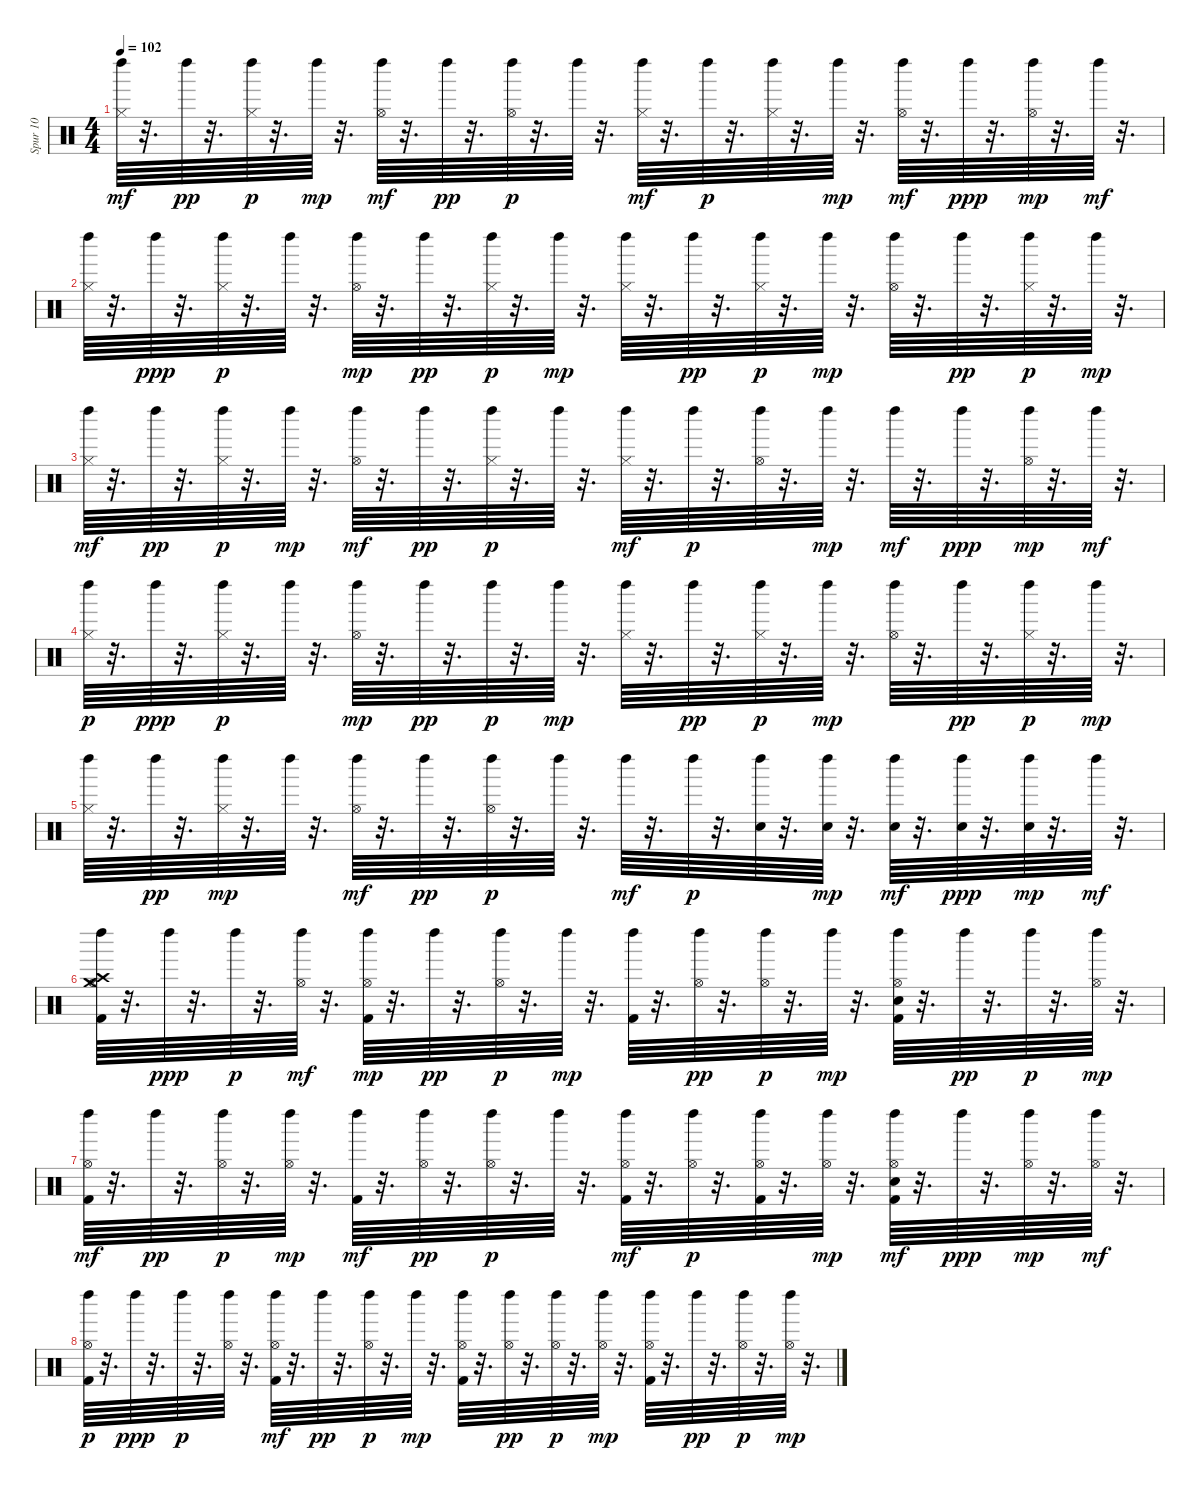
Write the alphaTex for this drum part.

\track ("Spur 10" "Spur 10") {instrument percussion}
\staff {score}
\articulation defaults
\ts (4 4)
\tempo 102
\clef neutral
\ks c
("Hi-Hat (closed)" "Left Maraca (hit)").64{dy mf} r.32{d} "Left Maraca (hit)".64{dy pp} r.32{d} ("Hi-Hat (closed)" "Left Maraca (hit)").64{dy p} r.32{d} "Left Maraca (hit)".64{dy mp} r.32{d} ("Hi-Hat (open)" "Left Maraca (hit)").64{dy mf} r.32{d} "Left Maraca (hit)".64{dy pp} r.32{d} ("Hi-Hat (open)" "Left Maraca (hit)").64{dy p} r.32{d} "Left Maraca (hit)".64 r.32{d} ("Hi-Hat (closed)" "Left Maraca (hit)").64{dy mf} r.32{d} "Left Maraca (hit)".64{dy p} r.32{d} ("Hi-Hat (closed)" "Left Maraca (hit)").64 r.32{d} "Left Maraca (hit)".64{dy mp} r.32{d} ("Hi-Hat (open)" "Left Maraca (hit)").64{dy mf} r.32{d} "Left Maraca (hit)".64{dy ppp} r.32{d} ("Hi-Hat (open)" "Left Maraca (hit)").64{dy mp} r.32{d} "Left Maraca (hit)".64{dy mf} r.32{d} |
("Left Maraca (hit)" "Hi-Hat (closed)").64 r.32{d} "Left Maraca (hit)".64{dy ppp} r.32{d} ("Hi-Hat (closed)" "Left Maraca (hit)").64{dy p} r.32{d} "Left Maraca (hit)".64 r.32{d} ("Hi-Hat (open)" "Left Maraca (hit)").64{dy mp} r.32{d} "Left Maraca (hit)".64{dy pp} r.32{d} ("Hi-Hat (closed)" "Left Maraca (hit)").64{dy p} r.32{d} "Left Maraca (hit)".64{dy mp} r.32{d} ("Hi-Hat (closed)" "Left Maraca (hit)").64 r.32{d} "Left Maraca (hit)".64{dy pp} r.32{d} ("Hi-Hat (closed)" "Left Maraca (hit)").64{dy p} r.32{d} "Left Maraca (hit)".64{dy mp} r.32{d} ("Hi-Hat (open)" "Left Maraca (hit)").64 r.32{d} "Left Maraca (hit)".64{dy pp} r.32{d} ("Hi-Hat (closed)" "Left Maraca (hit)").64{dy p} r.32{d} "Left Maraca (hit)".64{dy mp} r.32{d} |
("Hi-Hat (closed)" "Left Maraca (hit)").64{dy mf} r.32{d} "Left Maraca (hit)".64{dy pp} r.32{d} ("Hi-Hat (closed)" "Left Maraca (hit)").64{dy p} r.32{d} "Left Maraca (hit)".64{dy mp} r.32{d} ("Hi-Hat (open)" "Left Maraca (hit)").64{dy mf} r.32{d} "Left Maraca (hit)".64{dy pp} r.32{d} ("Hi-Hat (closed)" "Left Maraca (hit)").64{dy p} r.32{d} "Left Maraca (hit)".64 r.32{d} ("Hi-Hat (closed)" "Left Maraca (hit)").64{dy mf} r.32{d} "Left Maraca (hit)".64{dy p} r.32{d} ("Hi-Hat (open)" "Left Maraca (hit)").64 r.32{d} "Left Maraca (hit)".64{dy mp} r.32{d} "Left Maraca (hit)".64{dy mf} r.32{d} "Left Maraca (hit)".64{dy ppp} r.32{d} ("Hi-Hat (open)" "Left Maraca (hit)").64{dy mp} r.32{d} "Left Maraca (hit)".64{dy mf} r.32{d} |
("Left Maraca (hit)" "Hi-Hat (closed)").64{dy p} r.32{d} "Left Maraca (hit)".64{dy ppp} r.32{d} ("Hi-Hat (closed)" "Left Maraca (hit)").64{dy p} r.32{d} "Left Maraca (hit)".64 r.32{d} ("Hi-Hat (open)" "Left Maraca (hit)").64{dy mp} r.32{d} "Left Maraca (hit)".64{dy pp} r.32{d} "Left Maraca (hit)".64{dy p} r.32{d} "Left Maraca (hit)".64{dy mp} r.32{d} ("Hi-Hat (closed)" "Left Maraca (hit)").64 r.32{d} "Left Maraca (hit)".64{dy pp} r.32{d} ("Hi-Hat (closed)" "Left Maraca (hit)").64{dy p} r.32{d} "Left Maraca (hit)".64{dy mp} r.32{d} ("Hi-Hat (open)" "Left Maraca (hit)").64 r.32{d} "Left Maraca (hit)".64{dy pp} r.32{d} ("Hi-Hat (closed)" "Left Maraca (hit)").64{dy p} r.32{d} "Left Maraca (hit)".64{dy mp} r.32{d} |
("Left Maraca (hit)" "Hi-Hat (closed)").64 r.32{d} "Left Maraca (hit)".64{dy pp} r.32{d} ("Left Maraca (hit)" "Hi-Hat (closed)").64{dy mp} r.32{d} "Left Maraca (hit)".64 r.32{d} ("Hi-Hat (open)" "Left Maraca (hit)").64{dy mf} r.32{d} "Left Maraca (hit)".64{dy pp} r.32{d} ("Hi-Hat (open)" "Left Maraca (hit)").64{dy p} r.32{d} "Left Maraca (hit)".64 r.32{d} "Left Maraca (hit)".64{dy mf} r.32{d} "Left Maraca (hit)".64{dy p} r.32{d} ("Snare (hit) 2" "Left Maraca (hit)").64 r.32{d} ("Snare (hit) 2" "Left Maraca (hit)").64{dy mp} r.32{d} ("Snare (hit) 2" "Left Maraca (hit)").64{dy mf} r.32{d} ("Snare (hit) 2" "Left Maraca (hit)").64{dy ppp} r.32{d} ("Snare (hit) 2" "Left Maraca (hit)").64{dy mp} r.32{d} "Left Maraca (hit)".64{dy mf} r.32{d} |
("Kick (hit) 2" "Left Maraca (hit)" "Hi-Hat (open)" "Crash medium (hit)" "Crash high (hit)").64 r.32{d} "Left Maraca (hit)".64{dy ppp} r.32{d} "Left Maraca (hit)".64{dy p} r.32{d} ("Left Maraca (hit)" "Hi-Hat (open)").64{dy mf} r.32{d} ("Kick (hit) 2" "Left Maraca (hit)" "Hi-Hat (open)").64{dy mp} r.32{d} "Left Maraca (hit)".64{dy pp} r.32{d} ("Hi-Hat (open)" "Left Maraca (hit)").64{dy p} r.32{d} "Left Maraca (hit)".64{dy mp} r.32{d} ("Kick (hit) 2" "Left Maraca (hit)").64 r.32{d} ("Hi-Hat (open)" "Left Maraca (hit)").64{dy pp} r.32{d} ("Hi-Hat (open)" "Left Maraca (hit)").64{dy p} r.32{d} "Left Maraca (hit)".64{dy mp} r.32{d} ("Hi-Hat (open)" "Left Maraca (hit)" "Kick (hit) 2" "Snare (hit) 2").64 r.32{d} "Left Maraca (hit)".64{dy pp} r.32{d} "Left Maraca (hit)".64{dy p} r.32{d} ("Hi-Hat (open)" "Left Maraca (hit)").64{dy mp} r.32{d} |
("Kick (hit) 2" "Hi-Hat (open)" "Left Maraca (hit)").64{dy mf} r.32{d} "Left Maraca (hit)".64{dy pp} r.32{d} ("Hi-Hat (open)" "Left Maraca (hit)").64{dy p} r.32{d} ("Hi-Hat (open)" "Left Maraca (hit)").64{dy mp} r.32{d} ("Kick (hit) 2" "Left Maraca (hit)").64{dy mf} r.32{d} ("Hi-Hat (open)" "Left Maraca (hit)").64{dy pp} r.32{d} ("Hi-Hat (open)" "Left Maraca (hit)").64{dy p} r.32{d} "Left Maraca (hit)".64 r.32{d} ("Kick (hit) 2" "Hi-Hat (open)" "Left Maraca (hit)").64{dy mf} r.32{d} ("Hi-Hat (open)" "Left Maraca (hit)").64{dy p} r.32{d} ("Hi-Hat (open)" "Kick (hit) 2" "Left Maraca (hit)").64 r.32{d} ("Hi-Hat (open)" "Left Maraca (hit)").64{dy mp} r.32{d} ("Hi-Hat (open)" "Left Maraca (hit)" "Kick (hit) 2" "Snare (hit) 2").64{dy mf} r.32{d} "Left Maraca (hit)".64{dy ppp} r.32{d} ("Hi-Hat (open)" "Left Maraca (hit)").64{dy mp} r.32{d} ("Hi-Hat (open)" "Left Maraca (hit)").64{dy mf} r.32{d} |
("Kick (hit) 2" "Left Maraca (hit)" "Hi-Hat (open)").64{dy p} r.32{d} "Left Maraca (hit)".64{dy ppp} r.32{d} "Left Maraca (hit)".64{dy p} r.32{d} ("Hi-Hat (open)" "Left Maraca (hit)").64 r.32{d} ("Hi-Hat (open)" "Left Maraca (hit)" "Kick (hit) 2").64{dy mf} r.32{d} "Left Maraca (hit)".64{dy pp} r.32{d} ("Hi-Hat (open)" "Left Maraca (hit)").64{dy p} r.32{d} "Left Maraca (hit)".64{dy mp} r.32{d} ("Hi-Hat (open)" "Kick (hit) 2" "Left Maraca (hit)").64 r.32{d} ("Hi-Hat (open)" "Left Maraca (hit)").64{dy pp} r.32{d} ("Hi-Hat (open)" "Left Maraca (hit)").64{dy p} r.32{d} ("Hi-Hat (open)" "Left Maraca (hit)").64{dy mp} r.32{d} ("Hi-Hat (open)" "Left Maraca (hit)" "Kick (hit) 2").64 r.32{d} "Left Maraca (hit)".64{dy pp} r.32{d} ("Hi-Hat (open)" "Left Maraca (hit)").64{dy p} r.32{d} ("Hi-Hat (open)" "Left Maraca (hit)").64{dy mp} r.32{d}
